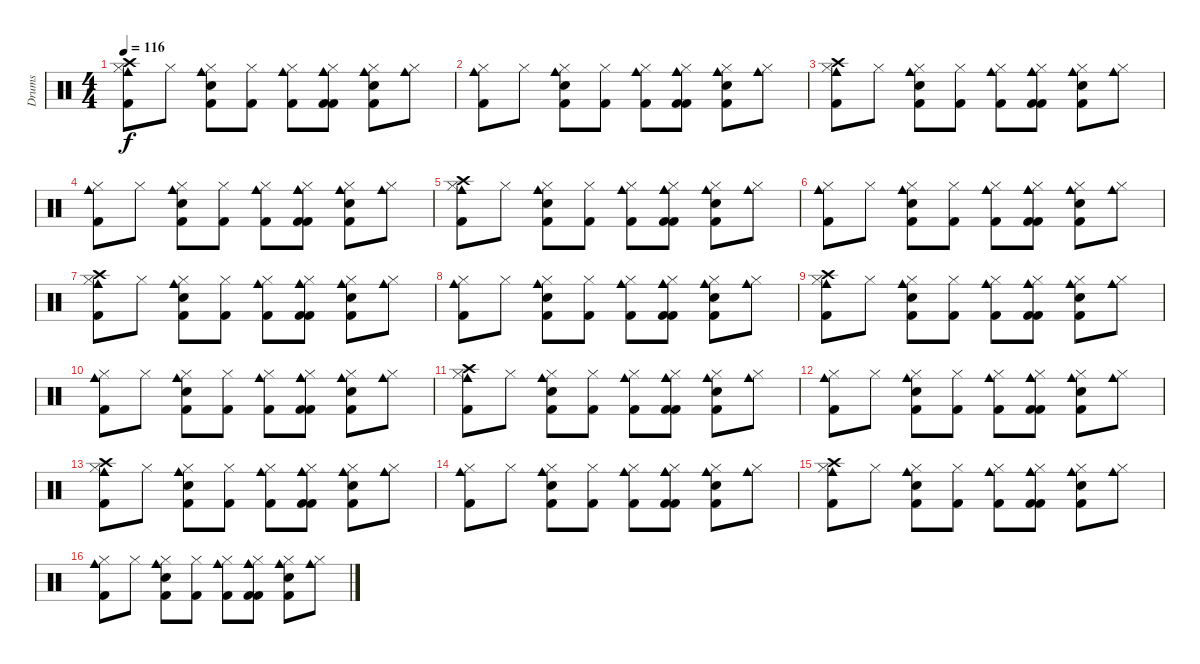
\track ("Drums" "Drums") {instrument percussion}
\staff {score}
\articulation defaults
\ts (4 4)
\tempo 116
\clef neutral
\ks c
("Kick (hit) 2" "Hi-Hat (closed)" "Crash high (hit)" "Cowbell medium (hit)").8{dy f} "Hi-Hat (closed)".8 ("Snare (hit) 2" "Kick (hit) 2" "Hi-Hat (closed)" "Cowbell medium (hit)").8 ("Kick (hit) 2" "Hi-Hat (closed)").8 ("Hi-Hat (closed)" "Kick (hit) 2" "Cowbell medium (hit)").8 ("Kick (hit) 2" "Hi-Hat (closed)" "Cowbell medium (hit)" "Kick (hit) 2" "Cowbell medium (hit)").8 ("Kick (hit) 2" "Snare (hit) 2" "Hi-Hat (closed)" "Cowbell medium (hit)").8 ("Hi-Hat (closed)" "Cowbell medium (hit)").8 |
("Kick (hit) 2" "Hi-Hat (closed)" "Cowbell medium (hit)").8 "Hi-Hat (closed)".8 ("Snare (hit) 2" "Kick (hit) 2" "Hi-Hat (closed)" "Cowbell medium (hit)").8 ("Kick (hit) 2" "Hi-Hat (closed)").8 ("Hi-Hat (closed)" "Kick (hit) 2" "Cowbell medium (hit)").8 ("Kick (hit) 2" "Hi-Hat (closed)" "Cowbell medium (hit)" "Kick (hit) 2" "Cowbell medium (hit)").8 ("Kick (hit) 2" "Snare (hit) 2" "Hi-Hat (closed)" "Cowbell medium (hit)").8 ("Hi-Hat (closed)" "Cowbell medium (hit)").8 |
("Kick (hit) 2" "Hi-Hat (closed)" "Crash high (hit)" "Cowbell medium (hit)").8 "Hi-Hat (closed)".8 ("Snare (hit) 2" "Kick (hit) 2" "Hi-Hat (closed)" "Cowbell medium (hit)").8 ("Kick (hit) 2" "Hi-Hat (closed)").8 ("Hi-Hat (closed)" "Kick (hit) 2" "Cowbell medium (hit)").8 ("Kick (hit) 2" "Hi-Hat (closed)" "Cowbell medium (hit)" "Kick (hit) 2" "Cowbell medium (hit)").8 ("Kick (hit) 2" "Snare (hit) 2" "Hi-Hat (closed)" "Cowbell medium (hit)").8 ("Hi-Hat (closed)" "Cowbell medium (hit)").8 |
("Kick (hit) 2" "Hi-Hat (closed)" "Cowbell medium (hit)").8 "Hi-Hat (closed)".8 ("Snare (hit) 2" "Kick (hit) 2" "Hi-Hat (closed)" "Cowbell medium (hit)").8 ("Kick (hit) 2" "Hi-Hat (closed)").8 ("Hi-Hat (closed)" "Kick (hit) 2" "Cowbell medium (hit)").8 ("Kick (hit) 2" "Hi-Hat (closed)" "Cowbell medium (hit)" "Kick (hit) 2" "Cowbell medium (hit)").8 ("Kick (hit) 2" "Snare (hit) 2" "Hi-Hat (closed)" "Cowbell medium (hit)").8 ("Hi-Hat (closed)" "Cowbell medium (hit)").8 |
("Kick (hit) 2" "Hi-Hat (closed)" "Crash high (hit)" "Cowbell medium (hit)").8 "Hi-Hat (closed)".8 ("Snare (hit) 2" "Kick (hit) 2" "Hi-Hat (closed)" "Cowbell medium (hit)").8 ("Kick (hit) 2" "Hi-Hat (closed)").8 ("Hi-Hat (closed)" "Kick (hit) 2" "Cowbell medium (hit)").8 ("Kick (hit) 2" "Hi-Hat (closed)" "Cowbell medium (hit)" "Kick (hit) 2" "Cowbell medium (hit)").8 ("Kick (hit) 2" "Snare (hit) 2" "Hi-Hat (closed)" "Cowbell medium (hit)").8 ("Hi-Hat (closed)" "Cowbell medium (hit)").8 |
("Kick (hit) 2" "Hi-Hat (closed)" "Cowbell medium (hit)").8 "Hi-Hat (closed)".8 ("Snare (hit) 2" "Kick (hit) 2" "Hi-Hat (closed)" "Cowbell medium (hit)").8 ("Kick (hit) 2" "Hi-Hat (closed)").8 ("Hi-Hat (closed)" "Kick (hit) 2" "Cowbell medium (hit)").8 ("Kick (hit) 2" "Hi-Hat (closed)" "Cowbell medium (hit)" "Kick (hit) 2" "Cowbell medium (hit)").8 ("Kick (hit) 2" "Snare (hit) 2" "Hi-Hat (closed)" "Cowbell medium (hit)").8 ("Hi-Hat (closed)" "Cowbell medium (hit)").8 |
("Kick (hit) 2" "Hi-Hat (closed)" "Cowbell medium (hit)" "Crash high (hit)").8 "Hi-Hat (closed)".8 ("Snare (hit) 2" "Kick (hit) 2" "Hi-Hat (closed)" "Cowbell medium (hit)").8 ("Kick (hit) 2" "Hi-Hat (closed)").8 ("Hi-Hat (closed)" "Kick (hit) 2" "Cowbell medium (hit)").8 ("Kick (hit) 2" "Hi-Hat (closed)" "Cowbell medium (hit)" "Kick (hit) 2" "Cowbell medium (hit)").8 ("Kick (hit) 2" "Snare (hit) 2" "Hi-Hat (closed)" "Cowbell medium (hit)").8 ("Hi-Hat (closed)" "Cowbell medium (hit)").8 |
("Kick (hit) 2" "Hi-Hat (closed)" "Cowbell medium (hit)").8 "Hi-Hat (closed)".8 ("Snare (hit) 2" "Kick (hit) 2" "Hi-Hat (closed)" "Cowbell medium (hit)").8 ("Kick (hit) 2" "Hi-Hat (closed)").8 ("Hi-Hat (closed)" "Kick (hit) 2" "Cowbell medium (hit)").8 ("Kick (hit) 2" "Hi-Hat (closed)" "Cowbell medium (hit)" "Kick (hit) 2" "Cowbell medium (hit)").8 ("Kick (hit) 2" "Snare (hit) 2" "Hi-Hat (closed)" "Cowbell medium (hit)").8 ("Hi-Hat (closed)" "Cowbell medium (hit)").8 |
("Kick (hit) 2" "Hi-Hat (closed)" "Crash high (hit)" "Cowbell medium (hit)").8 "Hi-Hat (closed)".8 ("Snare (hit) 2" "Kick (hit) 2" "Hi-Hat (closed)" "Cowbell medium (hit)").8 ("Kick (hit) 2" "Hi-Hat (closed)").8 ("Hi-Hat (closed)" "Kick (hit) 2" "Cowbell medium (hit)").8 ("Kick (hit) 2" "Hi-Hat (closed)" "Cowbell medium (hit)" "Kick (hit) 2" "Cowbell medium (hit)").8 ("Kick (hit) 2" "Snare (hit) 2" "Hi-Hat (closed)" "Cowbell medium (hit)").8 ("Hi-Hat (closed)" "Cowbell medium (hit)").8 |
("Kick (hit) 2" "Hi-Hat (closed)" "Cowbell medium (hit)").8 "Hi-Hat (closed)".8 ("Snare (hit) 2" "Kick (hit) 2" "Hi-Hat (closed)" "Cowbell medium (hit)").8 ("Kick (hit) 2" "Hi-Hat (closed)").8 ("Hi-Hat (closed)" "Kick (hit) 2" "Cowbell medium (hit)").8 ("Kick (hit) 2" "Hi-Hat (closed)" "Cowbell medium (hit)" "Kick (hit) 2" "Cowbell medium (hit)").8 ("Kick (hit) 2" "Snare (hit) 2" "Hi-Hat (closed)" "Cowbell medium (hit)").8 ("Hi-Hat (closed)" "Cowbell medium (hit)").8 |
("Kick (hit) 2" "Hi-Hat (closed)" "Crash high (hit)" "Cowbell medium (hit)").8 "Hi-Hat (closed)".8 ("Snare (hit) 2" "Kick (hit) 2" "Hi-Hat (closed)" "Cowbell medium (hit)").8 ("Kick (hit) 2" "Hi-Hat (closed)").8 ("Hi-Hat (closed)" "Kick (hit) 2" "Cowbell medium (hit)").8 ("Kick (hit) 2" "Hi-Hat (closed)" "Cowbell medium (hit)" "Kick (hit) 2" "Cowbell medium (hit)").8 ("Kick (hit) 2" "Snare (hit) 2" "Hi-Hat (closed)" "Cowbell medium (hit)").8 ("Hi-Hat (closed)" "Cowbell medium (hit)").8 |
("Kick (hit) 2" "Hi-Hat (closed)" "Cowbell medium (hit)").8 "Hi-Hat (closed)".8 ("Snare (hit) 2" "Kick (hit) 2" "Hi-Hat (closed)" "Cowbell medium (hit)").8 ("Kick (hit) 2" "Hi-Hat (closed)").8 ("Hi-Hat (closed)" "Kick (hit) 2" "Cowbell medium (hit)").8 ("Kick (hit) 2" "Hi-Hat (closed)" "Cowbell medium (hit)" "Kick (hit) 2" "Cowbell medium (hit)").8 ("Kick (hit) 2" "Snare (hit) 2" "Hi-Hat (closed)" "Cowbell medium (hit)").8 ("Hi-Hat (closed)" "Cowbell medium (hit)").8 |
("Kick (hit) 2" "Hi-Hat (closed)" "Crash high (hit)" "Cowbell medium (hit)").8 "Hi-Hat (closed)".8 ("Snare (hit) 2" "Kick (hit) 2" "Hi-Hat (closed)" "Cowbell medium (hit)").8 ("Kick (hit) 2" "Hi-Hat (closed)").8 ("Hi-Hat (closed)" "Kick (hit) 2" "Cowbell medium (hit)").8 ("Kick (hit) 2" "Hi-Hat (closed)" "Cowbell medium (hit)" "Kick (hit) 2" "Cowbell medium (hit)").8 ("Kick (hit) 2" "Snare (hit) 2" "Hi-Hat (closed)" "Cowbell medium (hit)").8 ("Hi-Hat (closed)" "Cowbell medium (hit)").8 |
("Kick (hit) 2" "Hi-Hat (closed)" "Cowbell medium (hit)").8 "Hi-Hat (closed)".8 ("Snare (hit) 2" "Kick (hit) 2" "Hi-Hat (closed)" "Cowbell medium (hit)").8 ("Kick (hit) 2" "Hi-Hat (closed)").8 ("Hi-Hat (closed)" "Kick (hit) 2" "Cowbell medium (hit)").8 ("Kick (hit) 2" "Hi-Hat (closed)" "Cowbell medium (hit)" "Kick (hit) 2" "Cowbell medium (hit)").8 ("Kick (hit) 2" "Snare (hit) 2" "Hi-Hat (closed)" "Cowbell medium (hit)").8 ("Hi-Hat (closed)" "Cowbell medium (hit)").8 |
("Kick (hit) 2" "Hi-Hat (closed)" "Cowbell medium (hit)" "Crash high (hit)").8 "Hi-Hat (closed)".8 ("Snare (hit) 2" "Kick (hit) 2" "Hi-Hat (closed)" "Cowbell medium (hit)").8 ("Kick (hit) 2" "Hi-Hat (closed)").8 ("Hi-Hat (closed)" "Kick (hit) 2" "Cowbell medium (hit)").8 ("Kick (hit) 2" "Hi-Hat (closed)" "Cowbell medium (hit)" "Kick (hit) 2" "Cowbell medium (hit)").8 ("Kick (hit) 2" "Snare (hit) 2" "Hi-Hat (closed)" "Cowbell medium (hit)").8 ("Hi-Hat (closed)" "Cowbell medium (hit)").8 |
("Kick (hit) 2" "Hi-Hat (closed)" "Cowbell medium (hit)").8 "Hi-Hat (closed)".8 ("Snare (hit) 2" "Kick (hit) 2" "Hi-Hat (closed)" "Cowbell medium (hit)").8 ("Kick (hit) 2" "Hi-Hat (closed)").8 ("Hi-Hat (closed)" "Kick (hit) 2" "Cowbell medium (hit)").8 ("Kick (hit) 2" "Hi-Hat (closed)" "Cowbell medium (hit)" "Kick (hit) 2" "Cowbell medium (hit)").8 ("Kick (hit) 2" "Snare (hit) 2" "Hi-Hat (closed)" "Cowbell medium (hit)").8 ("Hi-Hat (closed)" "Cowbell medium (hit)").8
